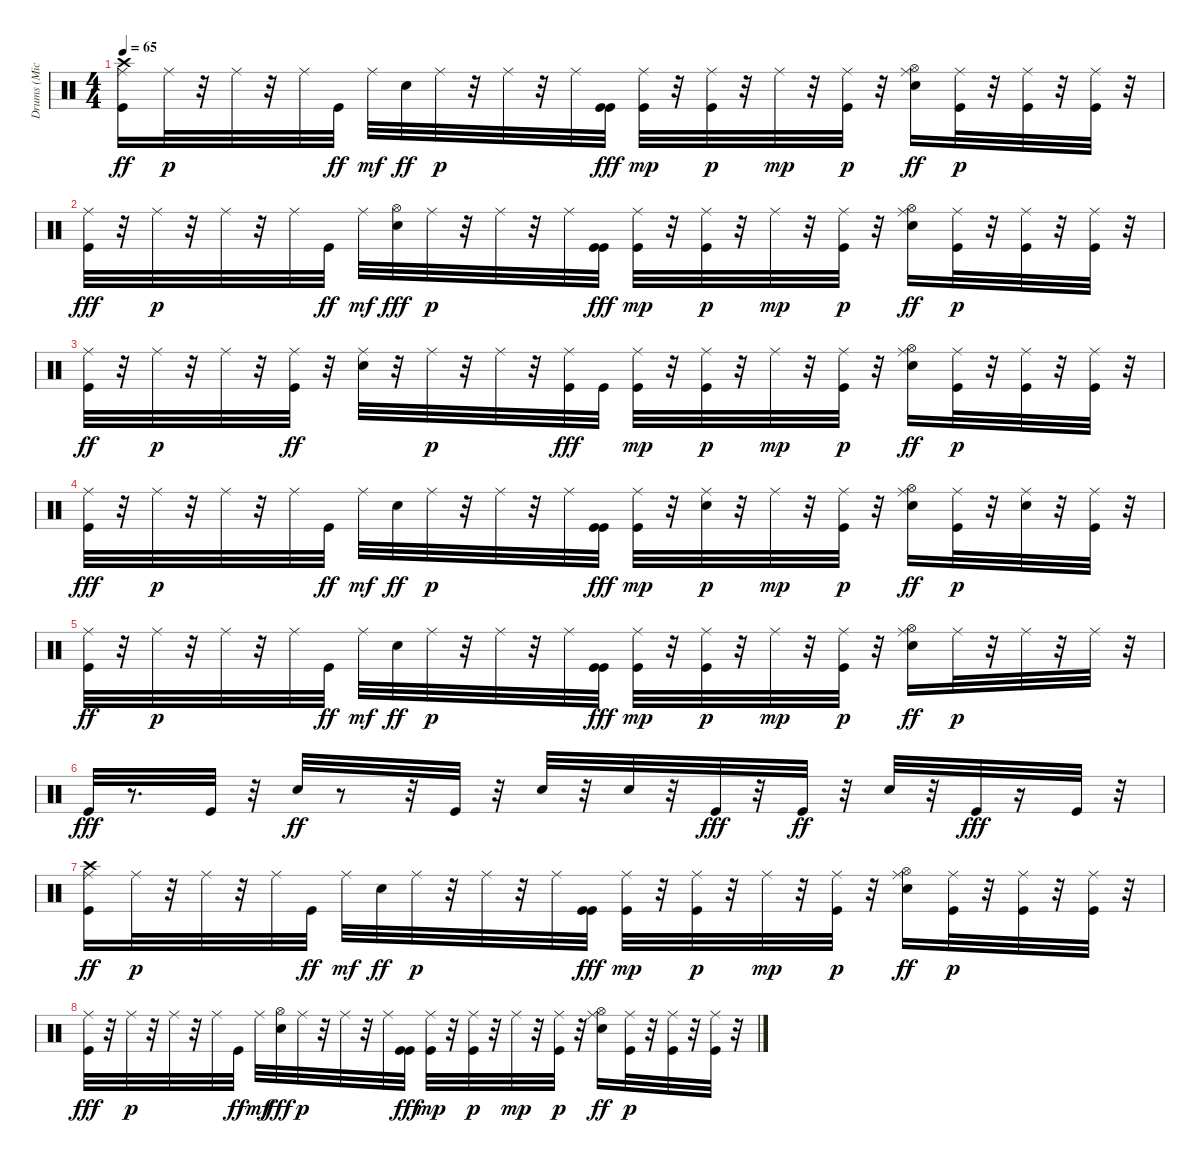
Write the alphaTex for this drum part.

\track ("Drums (Michael Giles)" "Drums (Mic") {instrument percussion}
\staff {score}
\articulation defaults
\ts (4 4)
\tempo 65
\clef neutral
\ks c
("Kick (hit)" "Ride (middle)" "Crash high (hit)").16{dy ff} "Ride (middle)".32{dy p} r.32 "Ride (middle)".32 r.32 "Ride (middle)".32 "Kick (hit)".32{dy ff} "Ride (middle)".32{dy mf} "Snare (hit) 2".32{dy ff} "Ride (middle)".32{dy p} r.32 "Ride (middle)".32 r.32 "Ride (middle)".32 ("Kick (hit)" "Kick (hit)").32{dy fff} ("Kick (hit)" "Ride (middle)").32{dy mp} r.32 ("Kick (hit)" "Ride (middle)").32{dy p} r.32 "Ride (middle)".32{dy mp} r.32 ("Kick (hit)" "Ride (middle)").32{dy p} r.32 ("Ride (middle)" "Hi-Hat (open)" "Snare (hit) 2").16{dy ff} ("Ride (middle)" "Kick (hit)").32{dy p} r.32 ("Ride (middle)" "Kick (hit)").32 r.32 ("Kick (hit)" "Ride (middle)").32 r.32 |
("Ride (middle)" "Kick (hit)").32{dy fff} r.32 "Ride (middle)".32{dy p} r.32 "Ride (middle)".32 r.32 "Ride (middle)".32 "Kick (hit)".32{dy ff} "Ride (middle)".32{dy mf} ("Snare (hit) 2" "Hi-Hat (open)").32{dy fff} "Ride (middle)".32{dy p} r.32 "Ride (middle)".32 r.32 "Ride (middle)".32 ("Kick (hit)" "Kick (hit)").32{dy fff} ("Kick (hit)" "Ride (middle)").32{dy mp} r.32 ("Kick (hit)" "Ride (middle)").32{dy p} r.32 "Ride (middle)".32{dy mp} r.32 ("Ride (middle)" "Kick (hit)").32{dy p} r.32 ("Hi-Hat (open)" "Ride (middle)" "Snare (hit) 2").16{dy ff} ("Ride (middle)" "Kick (hit)").32{dy p} r.32 ("Ride (middle)" "Kick (hit)").32 r.32 ("Kick (hit)" "Ride (middle)").32 r.32 |
("Kick (hit)" "Ride (middle)").32{dy ff} r.32 "Ride (middle)".32{dy p} r.32 "Ride (middle)".32 r.32 ("Ride (middle)" "Kick (hit)").32{dy ff} r.32 ("Ride (middle)" "Snare (hit) 2").32 r.32 "Ride (middle)".32{dy p} r.32 "Ride (middle)".32 r.32 ("Ride (middle)" "Kick (hit)").32{dy fff} "Kick (hit)".32 ("Kick (hit)" "Ride (middle)").32{dy mp} r.32 ("Kick (hit)" "Ride (middle)").32{dy p} r.32 "Ride (middle)".32{dy mp} r.32 ("Kick (hit)" "Ride (middle)").32{dy p} r.32 ("Ride (middle)" "Hi-Hat (open)" "Snare (hit) 2").16{dy ff} ("Ride (middle)" "Kick (hit)").32{dy p} r.32 ("Ride (middle)" "Kick (hit)").32 r.32 ("Kick (hit)" "Ride (middle)").32 r.32 |
("Ride (middle)" "Kick (hit)").32{dy fff} r.32 "Ride (middle)".32{dy p} r.32 "Ride (middle)".32 r.32 "Ride (middle)".32 "Kick (hit)".32{dy ff} "Ride (middle)".32{dy mf} "Snare (hit) 2".32{dy ff} "Ride (middle)".32{dy p} r.32 "Ride (middle)".32 r.32 "Ride (middle)".32 ("Kick (hit)" "Kick (hit)").32{dy fff} ("Kick (hit)" "Ride (middle)").32{dy mp} r.32 ("Snare (hit) 2" "Ride (middle)").32{dy p} r.32 "Ride (middle)".32{dy mp} r.32 ("Ride (middle)" "Kick (hit)").32{dy p} r.32 ("Ride (middle)" "Hi-Hat (open)" "Snare (hit) 2").16{dy ff} ("Ride (middle)" "Kick (hit)").32{dy p} r.32 ("Ride (middle)" "Snare (hit) 2").32 r.32 ("Kick (hit)" "Ride (middle)").32 r.32 |
("Kick (hit)" "Ride (middle)").32{dy ff} r.32 "Ride (middle)".32{dy p} r.32 "Ride (middle)".32 r.32 "Ride (middle)".32 "Kick (hit)".32{dy ff} "Ride (middle)".32{dy mf} "Snare (hit) 2".32{dy ff} "Ride (middle)".32{dy p} r.32 "Ride (middle)".32 r.32 "Ride (middle)".32 ("Kick (hit)" "Kick (hit)").32{dy fff} ("Kick (hit)" "Ride (middle)").32{dy mp} r.32 ("Kick (hit)" "Ride (middle)").32{dy p} r.32 "Ride (middle)".32{dy mp} r.32 ("Kick (hit)" "Ride (middle)").32{dy p} r.32 ("Ride (middle)" "Hi-Hat (open)" "Snare (hit) 2").16{dy ff} "Ride (middle)".32{dy p} r.32 "Ride (middle)".32 r.32 "Ride (middle)".32 r.32 |
"Kick (hit)".32{dy fff} r.8{d} "Kick (hit)".32 r.32 "Snare (hit) 2".32{dy ff} r.8 r.32 "Kick (hit)".32 r.32 "Snare (hit) 2".32 r.32 "Snare (hit) 2".32 r.32 "Kick (hit)".32{dy fff} r.32 "Kick (hit)".32{dy ff} r.32 "Snare (hit) 2".32 r.32 "Kick (hit)".32{dy fff} r.16 "Kick (hit)".32 r.32 |
("Kick (hit)" "Crash high (hit)" "Ride (middle)").16{dy ff} "Ride (middle)".32{dy p} r.32 "Ride (middle)".32 r.32 "Ride (middle)".32 "Kick (hit)".32{dy ff} "Ride (middle)".32{dy mf} "Snare (hit) 2".32{dy ff} "Ride (middle)".32{dy p} r.32 "Ride (middle)".32 r.32 "Ride (middle)".32 ("Kick (hit)" "Kick (hit)").32{dy fff} ("Kick (hit)" "Ride (middle)").32{dy mp} r.32 ("Kick (hit)" "Ride (middle)").32{dy p} r.32 "Ride (middle)".32{dy mp} r.32 ("Kick (hit)" "Ride (middle)").32{dy p} r.32 ("Ride (middle)" "Hi-Hat (open)" "Snare (hit) 2").16{dy ff} ("Ride (middle)" "Kick (hit)").32{dy p} r.32 ("Ride (middle)" "Kick (hit)").32 r.32 ("Kick (hit)" "Ride (middle)").32 r.32 |
("Ride (middle)" "Kick (hit)").32{dy fff} r.32 "Ride (middle)".32{dy p} r.32 "Ride (middle)".32 r.32 "Ride (middle)".32 "Kick (hit)".32{dy ff} "Ride (middle)".32{dy mf} ("Snare (hit) 2" "Hi-Hat (open)").32{dy fff} "Ride (middle)".32{dy p} r.32 "Ride (middle)".32 r.32 "Ride (middle)".32 ("Kick (hit)" "Kick (hit)").32{dy fff} ("Kick (hit)" "Ride (middle)").32{dy mp} r.32 ("Kick (hit)" "Ride (middle)").32{dy p} r.32 "Ride (middle)".32{dy mp} r.32 ("Ride (middle)" "Kick (hit)").32{dy p} r.32 ("Hi-Hat (open)" "Ride (middle)" "Snare (hit) 2").16{dy ff} ("Ride (middle)" "Kick (hit)").32{dy p} r.32 ("Ride (middle)" "Kick (hit)").32 r.32 ("Kick (hit)" "Ride (middle)").32 r.32
